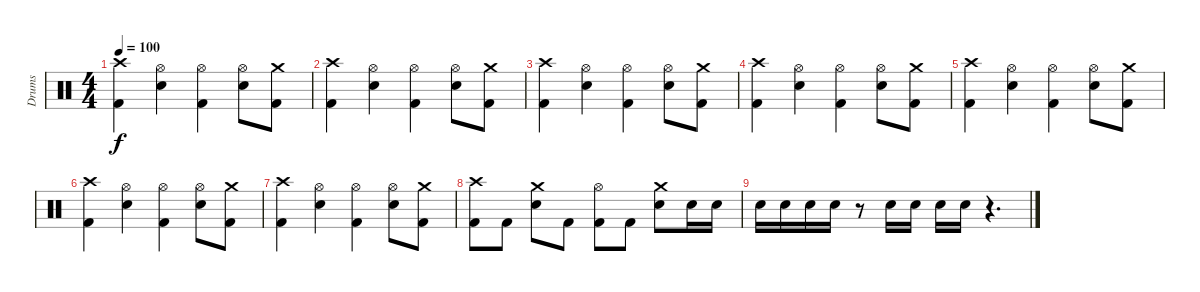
\track ("Drums" "Drums") {instrument percussion}
\staff {score}
\articulation defaults
\ts (4 4)
\tempo 100
\clef neutral
\ks c
("Crash high (hit)" "Kick (hit) 2").4{dy f} ("Hi-Hat (open)" "Snare (hit) 2").4 ("Hi-Hat (open)" "Kick (hit) 2").4 ("Hi-Hat (open)" "Snare (hit) 2").8 ("Crash medium (hit)" "Kick (hit) 2").8 |
("Crash high (hit)" "Kick (hit) 2").4 ("Hi-Hat (open)" "Snare (hit) 2").4 ("Hi-Hat (open)" "Kick (hit) 2").4 ("Hi-Hat (open)" "Snare (hit) 2").8 ("Crash medium (hit)" "Kick (hit) 2").8 |
("Crash high (hit)" "Kick (hit) 2").4 ("Hi-Hat (open)" "Snare (hit) 2").4 ("Hi-Hat (open)" "Kick (hit) 2").4 ("Hi-Hat (open)" "Snare (hit) 2").8 ("Crash medium (hit)" "Kick (hit) 2").8 |
("Crash high (hit)" "Kick (hit) 2").4 ("Hi-Hat (open)" "Snare (hit) 2").4 ("Hi-Hat (open)" "Kick (hit) 2").4 ("Hi-Hat (open)" "Snare (hit) 2").8 ("Crash medium (hit)" "Kick (hit) 2").8 |
("Crash high (hit)" "Kick (hit) 2").4 ("Hi-Hat (open)" "Snare (hit) 2").4 ("Hi-Hat (open)" "Kick (hit) 2").4 ("Hi-Hat (open)" "Snare (hit) 2").8 ("Crash medium (hit)" "Kick (hit) 2").8 |
("Crash high (hit)" "Kick (hit) 2").4 ("Hi-Hat (open)" "Snare (hit) 2").4 ("Hi-Hat (open)" "Kick (hit) 2").4 ("Hi-Hat (open)" "Snare (hit) 2").8 ("Crash medium (hit)" "Kick (hit) 2").8 |
("Crash high (hit)" "Kick (hit) 2").4 ("Hi-Hat (open)" "Snare (hit) 2").4 ("Hi-Hat (open)" "Kick (hit) 2").4 ("Hi-Hat (open)" "Snare (hit) 2").8 ("Crash medium (hit)" "Kick (hit) 2").8 |
("Crash high (hit)" "Kick (hit) 2").8 "Kick (hit) 2".8 ("Crash medium (hit)" "Snare (hit) 2").8 "Kick (hit) 2".8 ("Hi-Hat (open)" "Kick (hit) 2").8 "Kick (hit) 2".8 ("Crash medium (hit)" "Snare (hit) 2").8 "Snare (hit) 2".16 "Snare (hit) 2".16 |
"Snare (hit) 2".16 "Snare (hit) 2".16 "Snare (hit) 2".16 "Snare (hit) 2".16 r.8 "Snare (hit) 2".16 "Snare (hit) 2".16 "Snare (hit) 2".16 "Snare (hit) 2".16 r.4{d}
